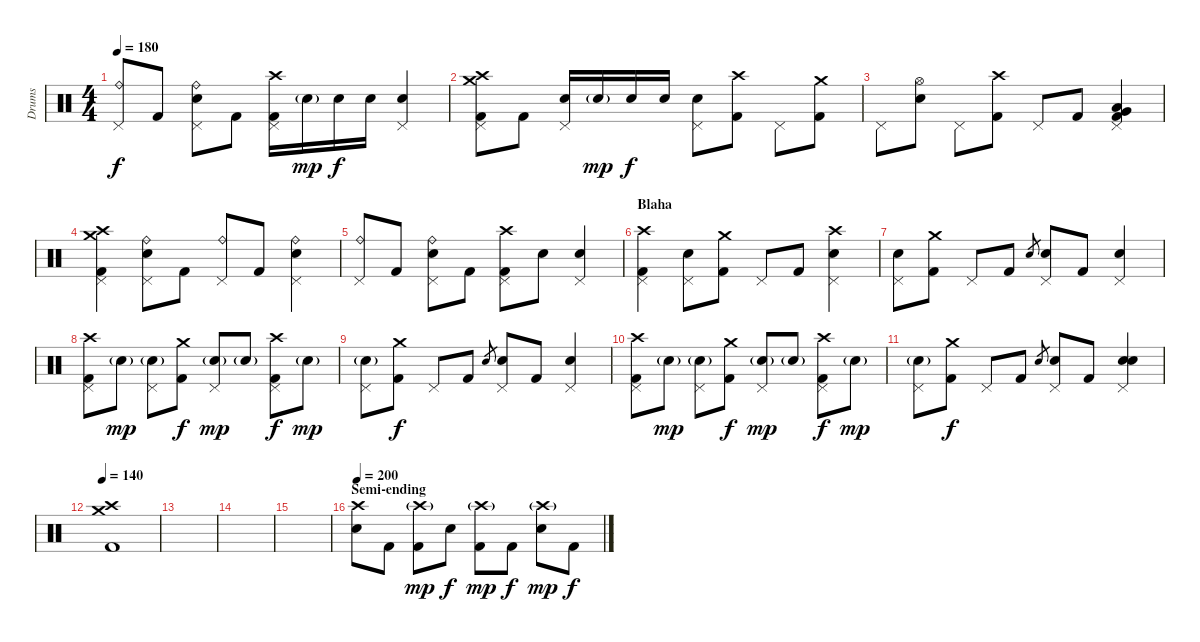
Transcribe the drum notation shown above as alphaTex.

\track ("Drums" "Drums") {instrument percussion}
\staff {score}
\articulation defaults
\ts (4 4)
\tempo 180
\clef neutral
\ks c
("Ride (bell)" "Pedal Hi-Hat (hit)").8{dy f} "Kick (hit) 2".8 ("Ride (bell)" "Pedal Hi-Hat (hit)" "Snare (hit) 2").8 "Kick (hit) 2".8 ("Crash high (hit)" "Pedal Hi-Hat (hit)" "Kick (hit) 2").16 "Snare (hit) 2"{g}.16{dy mp} "Snare (hit) 2".16{dy f} "Snare (hit) 2".16 ("Pedal Hi-Hat (hit)" "Snare (hit) 2").4 |
("Crash high (hit)" "Pedal Hi-Hat (hit)" "Crash medium (hit)" "Kick (hit) 2").8 "Kick (hit) 2".8 ("Pedal Hi-Hat (hit)" "Snare (hit) 2").16 "Snare (hit) 2"{g}.16{dy mp} "Snare (hit) 2".16{dy f} "Snare (hit) 2".16 ("Pedal Hi-Hat (hit)" "Snare (hit) 2").8 ("Crash high (hit)" "Kick (hit) 2").8 "Pedal Hi-Hat (hit)".8 ("Crash medium (hit)" "Kick (hit) 2").8 |
"Pedal Hi-Hat (hit)".8 ("Hi-Hat (open)" "Snare (hit) 2").8 "Pedal Hi-Hat (hit)".8 ("Crash high (hit)" "Kick (hit) 2").8 "Pedal Hi-Hat (hit)".8 "Kick (hit) 2".8 ("Pedal Hi-Hat (hit)" "Very Low Tom (hit)" "Low Floor Tom (hit)" "Kick (hit) 2").4 |
("Crash high (hit)" "Pedal Hi-Hat (hit)" "Crash medium (hit)" "Kick (hit) 2").4 ("Ride (bell)" "Pedal Hi-Hat (hit)" "Snare (hit) 2").8 "Kick (hit) 2".8 ("Ride (bell)" "Pedal Hi-Hat (hit)").8 "Kick (hit) 2".8 ("Ride (bell)" "Pedal Hi-Hat (hit)" "Snare (hit) 2").4 |
("Ride (bell)" "Pedal Hi-Hat (hit)").8 "Kick (hit) 2".8 ("Ride (bell)" "Pedal Hi-Hat (hit)" "Snare (hit) 2").8 "Kick (hit) 2".8 ("Crash high (hit)" "Pedal Hi-Hat (hit)" "Kick (hit) 2").8 "Snare (hit) 2".8 ("Pedal Hi-Hat (hit)" "Snare (hit) 2").4 |
\section ("" "Blaha")
("Crash high (hit)" "Pedal Hi-Hat (hit)" "Kick (hit) 2").4 ("Pedal Hi-Hat (hit)" "Snare (hit) 2").8 ("Crash medium (hit)" "Kick (hit) 2").8 "Pedal Hi-Hat (hit)".8 "Kick (hit) 2".8 ("Crash high (hit)" "Pedal Hi-Hat (hit)" "Snare (hit) 2").4 |
("Pedal Hi-Hat (hit)" "Snare (hit) 2").8 ("Crash medium (hit)" "Kick (hit) 2").8 "Pedal Hi-Hat (hit)".8 "Kick (hit) 2".8 "Snare (hit) 2".8{gr} ("Pedal Hi-Hat (hit)" "Snare (hit) 2").8 "Kick (hit) 2".8 ("Pedal Hi-Hat (hit)" "Snare (hit) 2").4 |
("Crash high (hit)" "Pedal Hi-Hat (hit)" "Kick (hit) 2").8 "Snare (hit) 2"{g}.8{dy mp} ("Pedal Hi-Hat (hit)" "Snare (hit) 2"{g}).8 ("Crash medium (hit)" "Kick (hit) 2").8{dy f} ("Pedal Hi-Hat (hit)" "Snare (hit) 2"{g}).8{dy mp} "Snare (hit) 2"{g}.8 ("Crash high (hit)" "Pedal Hi-Hat (hit)" "Kick (hit) 2").8{dy f} "Snare (hit) 2"{g}.8{dy mp} |
("Pedal Hi-Hat (hit)" "Snare (hit) 2"{g}).8 ("Crash medium (hit)" "Kick (hit) 2").8{dy f} "Pedal Hi-Hat (hit)".8 "Kick (hit) 2".8 "Snare (hit) 2".8{gr} ("Pedal Hi-Hat (hit)" "Snare (hit) 2").8 "Kick (hit) 2".8 ("Pedal Hi-Hat (hit)" "Snare (hit) 2").4 |
("Crash high (hit)" "Pedal Hi-Hat (hit)" "Kick (hit) 2").8 "Snare (hit) 2"{g}.8{dy mp} ("Pedal Hi-Hat (hit)" "Snare (hit) 2"{g}).8 ("Crash medium (hit)" "Kick (hit) 2").8{dy f} ("Pedal Hi-Hat (hit)" "Snare (hit) 2"{g}).8{dy mp} "Snare (hit) 2"{g}.8 ("Crash high (hit)" "Pedal Hi-Hat (hit)" "Kick (hit) 2").8{dy f} "Snare (hit) 2"{g}.8{dy mp} |
("Pedal Hi-Hat (hit)" "Snare (hit) 2"{g}).8 ("Crash medium (hit)" "Kick (hit) 2").8{dy f} "Pedal Hi-Hat (hit)".8 "Kick (hit) 2".8 "Snare (hit) 2".8{gr} ("Pedal Hi-Hat (hit)" "Snare (hit) 2").8 "Kick (hit) 2".8 ("Pedal Hi-Hat (hit)" "Snare (hit) 2" "Snare (hit) 2").4 |
\tempo 140
("Crash high (hit)" "Crash medium (hit)" "Kick (hit) 2").1 |
|
|
|
\section ("" "Semi-ending")
\tempo 200
("Crash high (hit)" "Snare (hit) 2").8 "Kick (hit) 2".8 ("Crash high (hit)"{g} "Kick (hit) 2").8{dy mp} "Snare (hit) 2".8{dy f} ("Crash high (hit)"{g} "Kick (hit) 2").8{dy mp} "Kick (hit) 2".8{dy f} ("Crash high (hit)"{g} "Snare (hit) 2").8{dy mp} "Kick (hit) 2".8{dy f}
